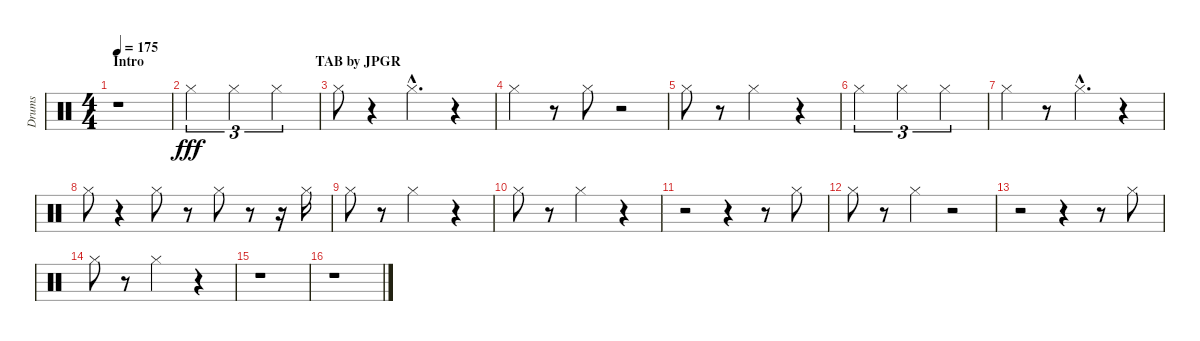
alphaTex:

\track ("Drums" "Drums") {instrument percussion}
\staff {score}
\articulation defaults
\ts (4 4)
\section ("" "Intro                                                 TAB by JPGR")
\tempo 175
\clef neutral
\ks c
r.1{dy fff} |
"Hi-Hat (closed)".2{tu (3 2)} "Hi-Hat (closed)".2{tu (3 2)} "Hi-Hat (closed)".2{tu (3 2)} |
"Hi-Hat (closed)".8 r.4 "Hi-Hat (closed)"{hac}.4{d} r.4 |
"Hi-Hat (closed)".4 r.8 "Hi-Hat (closed)".8 r.2 |
"Hi-Hat (closed)".8 r.8 "Hi-Hat (closed)".2 r.4 |
"Hi-Hat (closed)".2{tu (3 2)} "Hi-Hat (closed)".2{tu (3 2)} "Hi-Hat (closed)".2{tu (3 2)} |
"Hi-Hat (closed)".4 r.8 "Hi-Hat (closed)"{hac}.4{d} r.4 |
"Hi-Hat (closed)".8 r.4 "Hi-Hat (closed)".8 r.8 "Hi-Hat (closed)".8 r.8 r.16 "Hi-Hat (closed)".16 |
"Hi-Hat (closed)".8 r.8 "Hi-Hat (closed)".2 r.4 |
"Hi-Hat (closed)".8 r.8 "Hi-Hat (closed)".2 r.4 |
r.2 r.4 r.8 "Hi-Hat (closed)".8 |
"Hi-Hat (closed)".8 r.8 "Hi-Hat (closed)".4 r.2 |
r.2 r.4 r.8 "Hi-Hat (closed)".8 |
"Hi-Hat (closed)".8 r.8 "Hi-Hat (closed)".2 r.4 |
r.1 |
r.1
